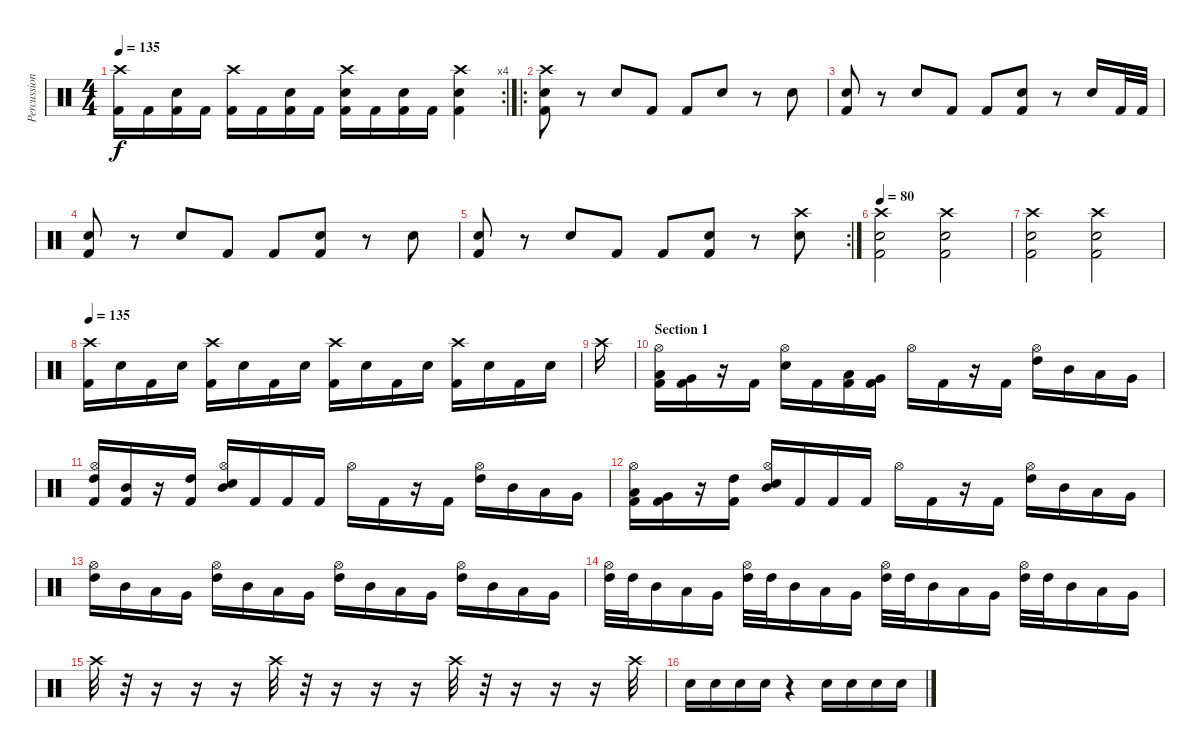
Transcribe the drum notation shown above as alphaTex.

\track ("Percussions" "Percussion") {instrument percussion}
\staff {score}
\articulation defaults
\rc 4
\ts (4 4)
\tempo 135
\clef neutral
\ks c
("Crash high (hit)" "Kick (hit) 2").16{dy f} "Kick (hit) 2".16 ("Snare (hit) 2" "Kick (hit) 2").16 "Kick (hit) 2".16 ("Crash high (hit)" "Kick (hit) 2").16 "Kick (hit) 2".16 ("Snare (hit) 2" "Kick (hit) 2").16 "Kick (hit) 2".16 ("Crash high (hit)" "Snare (hit) 2" "Kick (hit) 2").16 "Kick (hit) 2".16 ("Snare (hit) 2" "Kick (hit) 2").16 "Kick (hit) 2".16 ("Crash high (hit)" "Snare (hit) 2" "Kick (hit) 2").4 |
\ro
("Crash high (hit)" "Snare (hit) 2" "Kick (hit) 2").8 r.8 "Snare (hit) 2".8 "Kick (hit) 2".8 "Kick (hit) 2".8 "Snare (hit) 2".8 r.8 "Snare (hit) 2".8 |
("Snare (hit) 2" "Kick (hit) 2").8 r.8 "Snare (hit) 2".8 "Kick (hit) 2".8 "Kick (hit) 2".8 ("Snare (hit) 2" "Kick (hit) 2").8 r.8 "Snare (hit) 2".16 "Kick (hit) 2".32 "Kick (hit) 2".32 |
("Snare (hit) 2" "Kick (hit) 2").8 r.8 "Snare (hit) 2".8 "Kick (hit) 2".8 "Kick (hit) 2".8 ("Snare (hit) 2" "Kick (hit) 2").8 r.8 "Snare (hit) 2".8 |
\rc 2
("Snare (hit) 2" "Kick (hit) 2").8 r.8 "Snare (hit) 2".8 "Kick (hit) 2".8 "Kick (hit) 2".8 ("Snare (hit) 2" "Kick (hit) 2").8 r.8 ("Crash high (hit)" "Snare (hit) 2").8 |
\tempo 80
("Crash high (hit)" "Snare (hit) 2" "Kick (hit) 2").2 ("Crash high (hit)" "Snare (hit) 2" "Kick (hit) 2").2 |
("Crash high (hit)" "Snare (hit) 2" "Kick (hit) 2").2 ("Crash high (hit)" "Snare (hit) 2" "Kick (hit) 2").2 |
\tempo 135
("Crash high (hit)" "Kick (hit) 2").16 "Snare (hit) 2".16 "Kick (hit) 2".16 "Snare (hit) 2".16 ("Crash high (hit)" "Kick (hit) 2").16 "Snare (hit) 2".16 "Kick (hit) 2".16 "Snare (hit) 2".16 ("Crash high (hit)" "Kick (hit) 2").16 "Snare (hit) 2".16 "Kick (hit) 2".16 "Snare (hit) 2".16 ("Crash high (hit)" "Kick (hit) 2").16 "Snare (hit) 2".16 "Kick (hit) 2".16 "Snare (hit) 2".16 |
"Crash high (hit)".16 |
\section ("" "Section 1")
("Low Tom (hit)" "Hi-Hat (open)" "Kick (hit) 2").16 ("Very Low Tom (hit)" "Kick (hit) 2").16 r.16 "Kick (hit) 2".16 ("Hi-Hat (open)" "Snare (hit) 2").16 "Kick (hit) 2".16 ("Low Tom (hit)" "Kick (hit) 2").16 ("Very Low Tom (hit)" "Kick (hit) 2").16 "Hi-Hat (open)".16 "Kick (hit) 2".16 r.16 "Kick (hit) 2".16 ("Hi-Hat (open)" "High Tom (hit)").16 "Mid Tom (hit)".16 "Low Tom (hit)".16 "Very Low Tom (hit)".16 |
("High Tom (hit)" "Hi-Hat (open)" "Kick (hit) 2").16 ("Mid Tom (hit)" "Kick (hit) 2").16 r.16 ("High Tom (hit)" "Kick (hit) 2").16 ("Mid Tom (hit)" "Hi-Hat (open)" "Snare (hit) 2").16 "Kick (hit) 2".16 "Kick (hit) 2".16 "Kick (hit) 2".16 "Hi-Hat (open)".16 "Kick (hit) 2".16 r.16 "Kick (hit) 2".16 ("Hi-Hat (open)" "High Tom (hit)").16 "Mid Tom (hit)".16 "Low Tom (hit)".16 "Very Low Tom (hit)".16 |
("Low Tom (hit)" "Hi-Hat (open)" "Kick (hit) 2").16 ("Very Low Tom (hit)" "Kick (hit) 2").16 r.16 ("High Tom (hit)" "Kick (hit) 2").16 ("Mid Tom (hit)" "Hi-Hat (open)" "Snare (hit) 2").16 "Kick (hit) 2".16 "Kick (hit) 2".16 "Kick (hit) 2".16 "Hi-Hat (open)".16 "Kick (hit) 2".16 r.16 "Kick (hit) 2".16 ("Hi-Hat (open)" "High Tom (hit)").16 "Mid Tom (hit)".16 "Low Tom (hit)".16 "Very Low Tom (hit)".16 |
("High Tom (hit)" "Hi-Hat (open)").16 "Mid Tom (hit)".16 "Low Tom (hit)".16 "Very Low Tom (hit)".16 ("High Tom (hit)" "Hi-Hat (open)").16 "Mid Tom (hit)".16 "Low Tom (hit)".16 "Very Low Tom (hit)".16 ("High Tom (hit)" "Hi-Hat (open)").16 "Mid Tom (hit)".16 "Low Tom (hit)".16 "Very Low Tom (hit)".16 ("High Tom (hit)" "Hi-Hat (open)").16 "Mid Tom (hit)".16 "Low Tom (hit)".16 "Very Low Tom (hit)".16 |
("High Tom (hit)" "Hi-Hat (open)").32 "High Tom (hit)".32 "Mid Tom (hit)".16 "Low Tom (hit)".16 "Very Low Tom (hit)".16 ("High Tom (hit)" "Hi-Hat (open)").32 "High Tom (hit)".32 "Mid Tom (hit)".16 "Low Tom (hit)".16 "Very Low Tom (hit)".16 ("High Tom (hit)" "Hi-Hat (open)").32 "High Tom (hit)".32 "Mid Tom (hit)".16 "Low Tom (hit)".16 "Very Low Tom (hit)".16 ("High Tom (hit)" "Hi-Hat (open)").32 "High Tom (hit)".32 "Mid Tom (hit)".16 "Low Tom (hit)".16 "Very Low Tom (hit)".16 |
"Crash high (hit)".32 r.32 r.16 r.16 r.16 "Crash high (hit)".32 r.32 r.16 r.16 r.16 "Crash high (hit)".32 r.32 r.16 r.16 r.16 "Crash high (hit)".32 |
"Snare (hit) 2".16 "Snare (hit) 2".16 "Snare (hit) 2".16 "Snare (hit) 2".16 r.4 "Snare (hit) 2".16 "Snare (hit) 2".16 "Snare (hit) 2".16 "Snare (hit) 2".16
